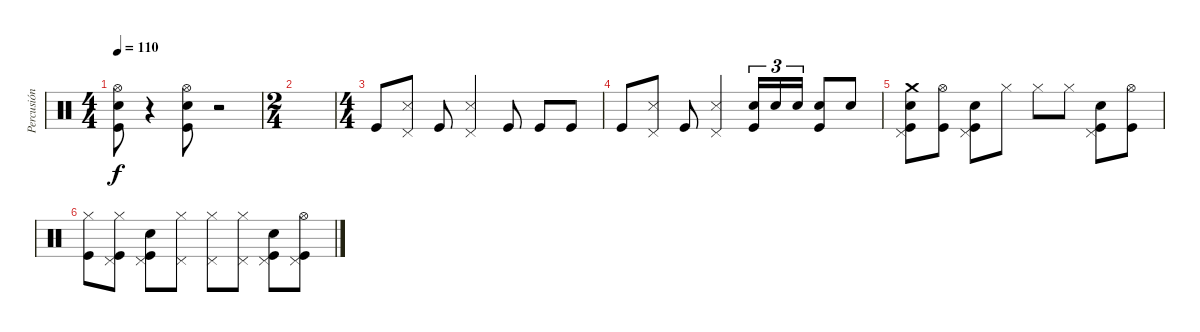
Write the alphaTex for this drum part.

\track ("Percusión" "Percusión") {instrument percussion}
\staff {score}
\articulation defaults
\ts (4 4)
\tempo 110
\clef neutral
\ks c
("Hi-Hat (open)" "Electric Snare (hit)" "Kick (hit)").8{dy f} r.4 ("Hi-Hat (open)" "Electric Snare (hit)" "Kick (hit)").8 r.2 |
\ts (2 4)
|
\ts (4 4)
"Kick (hit)".8 ("Metronome (hit)" "Pedal Hi-Hat (hit)").8 "Kick (hit)".8 ("Metronome (hit)" "Pedal Hi-Hat (hit)").4 "Kick (hit)".8 "Kick (hit)".8 "Kick (hit)".8 |
"Kick (hit)".8 ("Metronome (hit)" "Pedal Hi-Hat (hit)").8 "Kick (hit)".8 ("Metronome (hit)" "Pedal Hi-Hat (hit)").4 ("Electric Snare (hit)" "Kick (hit)").16{tu (3 2)} "Electric Snare (hit)".16{tu (3 2)} "Electric Snare (hit)".16{tu (3 2)} ("Electric Snare (hit)" "Kick (hit)").8 "Electric Snare (hit)".8 |
("Crash medium (hit)" "Electric Snare (hit)" "Kick (hit)" "Pedal Hi-Hat (hit)").8 ("Hi-Hat (open)" "Kick (hit)").8 ("Electric Snare (hit)" "Kick (hit)" "Pedal Hi-Hat (hit)").8 "Hi-Hat (closed)".8 "Hi-Hat (closed)".8 "Hi-Hat (closed)".8 ("Electric Snare (hit)" "Kick (hit)" "Pedal Hi-Hat (hit)").8 ("Hi-Hat (open)" "Kick (hit)").8 |
("Hi-Hat (closed)" "Kick (hit)").8 ("Hi-Hat (closed)" "Kick (hit)" "Pedal Hi-Hat (hit)").8 ("Electric Snare (hit)" "Kick (hit)" "Pedal Hi-Hat (hit)").8 ("Hi-Hat (closed)" "Pedal Hi-Hat (hit)").8 ("Hi-Hat (closed)" "Pedal Hi-Hat (hit)").8 ("Hi-Hat (closed)" "Pedal Hi-Hat (hit)").8 ("Electric Snare (hit)" "Kick (hit)" "Pedal Hi-Hat (hit)").8 ("Hi-Hat (open)" "Kick (hit)" "Pedal Hi-Hat (hit)").8
